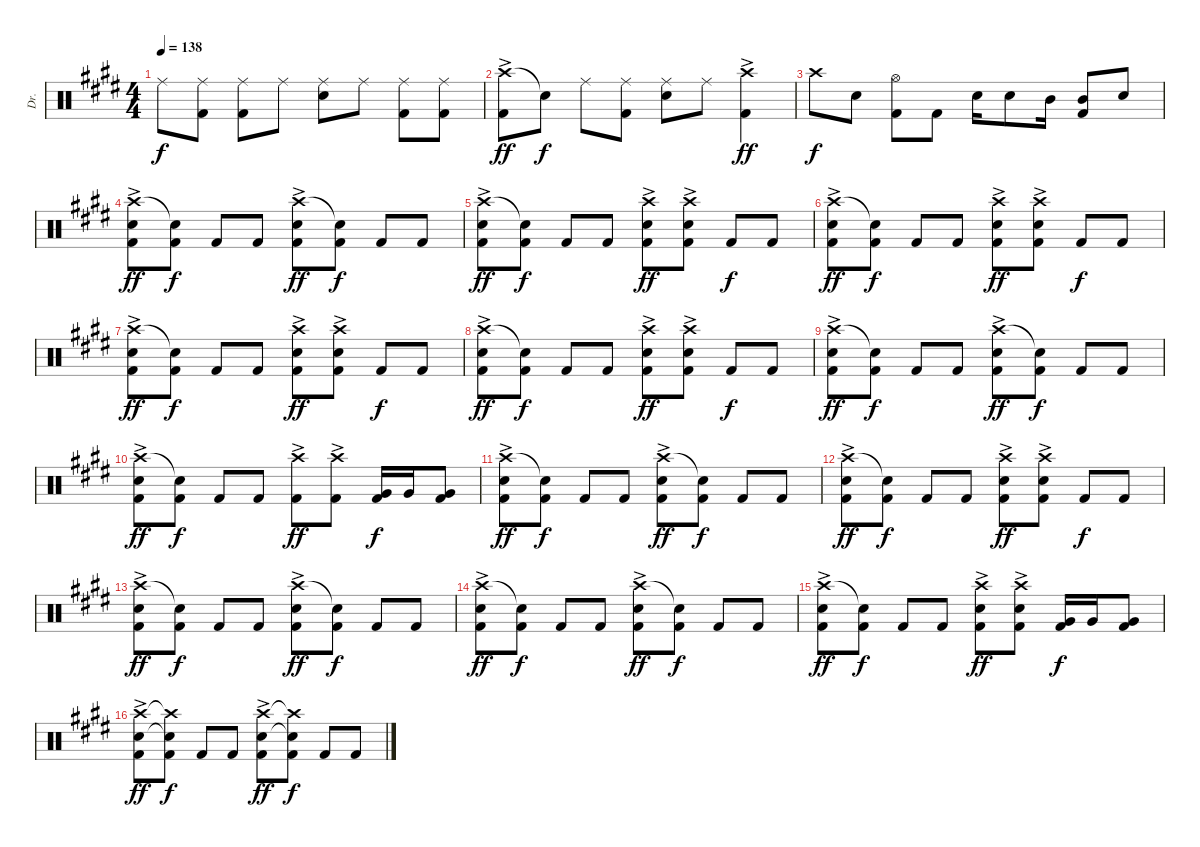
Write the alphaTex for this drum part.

\track ("Dr." "Dr.") {instrument percussion}
\staff {score}
\articulation defaults
\ts (4 4)
\tempo 138
\clef neutral
\ks e "Ride (middle)".8{dy f}
("Ride (middle)" "Kick (hit) 2").8 ("Ride (middle)" "Kick (hit) 2").8 "Ride (middle)".8 ("Ride (middle)" "Snare (hit) 2").8 "Ride (middle)".8 ("Ride (middle)" "Kick (hit) 2").8 ("Ride (middle)" "Kick (hit) 2").8 |
("Crash high (hit)"{ac} "Kick (hit) 2").8{dy ff} "Snare (hit)"{t}.8{dy f} "Ride (middle)".8 ("Ride (middle)" "Kick (hit) 2").8 ("Ride (middle)" "Snare (hit) 2").8 "Ride (middle)".8 ("Crash high (hit)"{ac} "Kick (hit) 2").4{dy ff} |
"Crash high (hit)".8{dy f} "Snare (hit) 2".8 ("Hi-Hat (open)" "Kick (hit) 2").8 "Kick (hit) 2".8 "Snare (hit) 2".16 "Snare (hit) 2".8 "Mid Tom (hit)".16 ("Mid Tom (hit)" "Kick (hit) 2").8 "Snare (hit) 2".8 |
("Crash high (hit)"{ac} "Snare (hit) 2" "Kick (hit) 2").8{dy ff} ("Snare (hit)"{t} "Kick (hit) 2").8{dy f} "Kick (hit) 2".8 "Kick (hit) 2".8 ("Crash high (hit)"{ac} "Snare (hit) 2" "Kick (hit) 2").8{dy ff} ("Snare (hit)"{t} "Kick (hit) 2").8{dy f} "Kick (hit) 2".8 "Kick (hit) 2".8 |
("Crash high (hit)"{ac} "Snare (hit) 2" "Kick (hit) 2").8{dy ff} ("Snare (hit)"{t} "Kick (hit) 2").8{dy f} "Kick (hit) 2".8 "Kick (hit) 2".8 ("Crash high (hit)"{ac} "Snare (hit) 2" "Kick (hit) 2").8{dy ff} ("Crash high (hit)"{ac} "Snare (hit) 2" "Kick (hit) 2").8 "Kick (hit) 2".8{dy f} "Kick (hit) 2".8 |
("Crash high (hit)"{ac} "Snare (hit) 2" "Kick (hit) 2").8{dy ff} ("Snare (hit)"{t} "Kick (hit) 2").8{dy f} "Kick (hit) 2".8 "Kick (hit) 2".8 ("Crash high (hit)"{ac} "Snare (hit) 2" "Kick (hit) 2").8{dy ff} ("Crash high (hit)"{ac} "Snare (hit) 2" "Kick (hit) 2").8 "Kick (hit) 2".8{dy f} "Kick (hit) 2".8 |
("Crash high (hit)"{ac} "Snare (hit) 2" "Kick (hit) 2").8{dy ff} ("Snare (hit)"{t} "Kick (hit) 2").8{dy f} "Kick (hit) 2".8 "Kick (hit) 2".8 ("Crash high (hit)"{ac} "Snare (hit) 2" "Kick (hit) 2").8{dy ff} ("Crash high (hit)"{ac} "Snare (hit) 2" "Kick (hit) 2").8 "Kick (hit) 2".8{dy f} "Kick (hit) 2".8 |
("Crash high (hit)"{ac} "Snare (hit) 2" "Kick (hit) 2").8{dy ff} ("Snare (hit)"{t} "Kick (hit) 2").8{dy f} "Kick (hit) 2".8 "Kick (hit) 2".8 ("Crash high (hit)"{ac} "Snare (hit) 2" "Kick (hit) 2").8{dy ff} ("Crash high (hit)"{ac} "Snare (hit) 2" "Kick (hit) 2").8 "Kick (hit) 2".8{dy f} "Kick (hit) 2".8 |
("Crash high (hit)"{ac} "Snare (hit) 2" "Kick (hit) 2").8{dy ff} ("Snare (hit)"{t} "Kick (hit) 2").8{dy f} "Kick (hit) 2".8 "Kick (hit) 2".8 ("Crash high (hit)"{ac} "Snare (hit) 2" "Kick (hit) 2").8{dy ff} ("Snare (hit)"{t} "Kick (hit) 2").8{dy f} "Kick (hit) 2".8 "Kick (hit) 2".8 |
("Crash high (hit)"{ac} "Snare (hit) 2" "Kick (hit) 2").8{dy ff} ("Snare (hit)"{t} "Kick (hit) 2").8{dy f} "Kick (hit) 2".8 "Kick (hit) 2".8 ("Crash high (hit)"{ac} "Kick (hit) 2").8{dy ff} ("Crash high (hit)"{ac} "Kick (hit) 2").8 ("Very Low Tom (hit)" "Kick (hit) 2").16{dy f} "Very Low Tom (hit)".16 ("Very Low Tom (hit)" "Kick (hit) 2").8 |
("Crash high (hit)"{ac} "Snare (hit) 2" "Kick (hit) 2").8{dy ff} ("Snare (hit)"{t} "Kick (hit) 2").8{dy f} "Kick (hit) 2".8 "Kick (hit) 2".8 ("Crash high (hit)"{ac} "Snare (hit) 2" "Kick (hit) 2").8{dy ff} ("Snare (hit)"{t} "Kick (hit) 2").8{dy f} "Kick (hit) 2".8 "Kick (hit) 2".8 |
("Crash high (hit)"{ac} "Snare (hit) 2" "Kick (hit) 2").8{dy ff} ("Snare (hit)"{t} "Kick (hit) 2").8{dy f} "Kick (hit) 2".8 "Kick (hit) 2".8 ("Crash high (hit)"{ac} "Snare (hit) 2" "Kick (hit) 2").8{dy ff} ("Crash high (hit)"{ac} "Snare (hit) 2" "Kick (hit) 2").8 "Kick (hit) 2".8{dy f} "Kick (hit) 2".8 |
("Crash high (hit)"{ac} "Snare (hit) 2" "Kick (hit) 2").8{dy ff} ("Snare (hit)"{t} "Kick (hit) 2").8{dy f} "Kick (hit) 2".8 "Kick (hit) 2".8 ("Crash high (hit)"{ac} "Snare (hit) 2" "Kick (hit) 2").8{dy ff} ("Snare (hit)"{t} "Kick (hit) 2").8{dy f} "Kick (hit) 2".8 "Kick (hit) 2".8 |
("Crash high (hit)"{ac} "Snare (hit) 2" "Kick (hit) 2").8{dy ff} ("Snare (hit)"{t} "Kick (hit) 2").8{dy f} "Kick (hit) 2".8 "Kick (hit) 2".8 ("Crash high (hit)"{ac} "Snare (hit) 2" "Kick (hit) 2").8{dy ff} ("Snare (hit)"{t} "Kick (hit) 2").8{dy f} "Kick (hit) 2".8 "Kick (hit) 2".8 |
("Crash high (hit)"{ac} "Snare (hit) 2" "Kick (hit) 2").8{dy ff} ("Snare (hit)"{t} "Kick (hit) 2").8{dy f} "Kick (hit) 2".8 "Kick (hit) 2".8 ("Crash high (hit)"{ac} "Snare (hit) 2" "Kick (hit) 2").8{dy ff} ("Crash high (hit)"{ac} "Snare (hit) 2" "Kick (hit) 2").8 ("Very Low Tom (hit)" "Kick (hit) 2").16{dy f} "Very Low Tom (hit)".16 ("Very Low Tom (hit)" "Kick (hit) 2").8 |
("Crash high (hit)"{ac} "Snare (hit) 2" "Kick (hit) 2").8{dy ff} ("Crash high (hit)"{t} "Snare (hit) 2"{t} "Kick (hit) 2").8{dy f} "Kick (hit) 2".8 "Kick (hit) 2".8 ("Crash high (hit)"{ac} "Snare (hit) 2" "Kick (hit) 2").8{dy ff} ("Crash high (hit)"{t} "Snare (hit) 2"{t} "Kick (hit) 2").8{dy f} "Kick (hit) 2".8 "Kick (hit) 2".8
